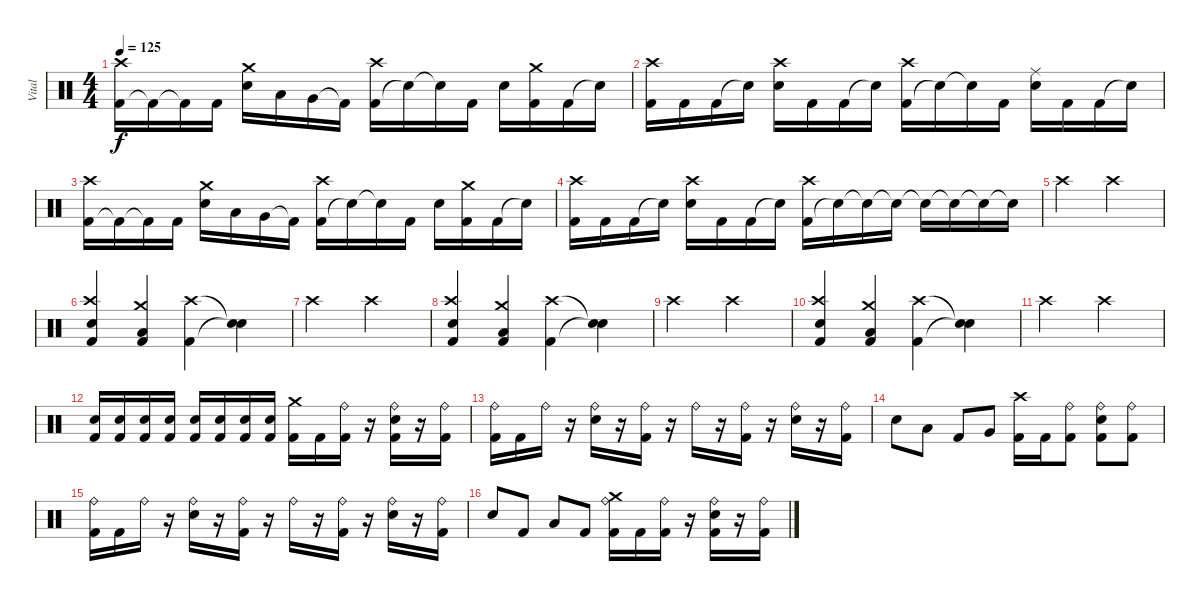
\track ("Vital" "Vital") {instrument percussion}
\staff {score}
\articulation defaults
\ts (4 4)
\tempo 125
\clef neutral
\ks c
("Kick (hit) 2" "Crash high (hit)").16{dy f} "Kick (hit) 2"{t}.16 "Kick (hit) 2"{t}.16 "Kick (hit) 2".16 ("Snare (hit) 2" "Crash medium (hit)").16 "Low Tom (hit)".16 "Very Low Tom (hit)".16 "Kick (hit) 2"{t}.16 ("Kick (hit) 2" "Crash high (hit)").16 "Snare (hit)"{t}.16 "Snare (hit)"{t}.16 "Kick (hit) 2".16 "Snare (hit) 2".16 ("Kick (hit) 2" "Crash medium (hit)").16 "Kick (hit) 2".16 "Snare (hit)"{t}.16 |
("Kick (hit) 2" "Crash high (hit)").16 "Kick (hit) 2".16 "Kick (hit) 2".16 "Snare (hit)"{t}.16 ("Snare (hit) 2" "Crash high (hit)").16 "Kick (hit) 2".16 "Kick (hit) 2".16 "Snare (hit)"{t}.16 ("Kick (hit) 2" "Crash high (hit)").16 "Snare (hit)"{t}.16 "Snare (hit)"{t}.16 "Kick (hit) 2".16 ("Snare (hit) 2" "Ride (middle)").16 "Kick (hit) 2".16 "Kick (hit) 2".16 "Snare (hit)"{t}.16 |
("Kick (hit) 2" "Crash high (hit)").16 "Kick (hit) 2"{t}.16 "Kick (hit) 2"{t}.16 "Kick (hit) 2".16 ("Snare (hit) 2" "Crash medium (hit)").16 "Low Tom (hit)".16 "Very Low Tom (hit)".16 "Kick (hit) 2"{t}.16 ("Kick (hit) 2" "Crash high (hit)").16 "Snare (hit)"{t}.16 "Snare (hit)"{t}.16 "Kick (hit) 2".16 "Snare (hit) 2".16 ("Kick (hit) 2" "Crash medium (hit)").16 "Kick (hit) 2".16 "Snare (hit)"{t}.16 |
("Kick (hit) 2" "Crash high (hit)").16 "Kick (hit) 2".16 "Kick (hit) 2".16 "Snare (hit)"{t}.16 ("Snare (hit) 2" "Crash high (hit)").16 "Kick (hit) 2".16 "Kick (hit) 2".16 "Snare (hit)"{t}.16 ("Kick (hit) 2" "Crash high (hit)").16 "Snare (hit)"{t}.16 "Snare (hit) 2"{t}.16 "Snare (hit) 2"{t}.16 "Snare (hit) 2"{t}.16 "Snare (hit) 2"{t}.16 "Snare (hit) 2"{t}.16 "Snare (hit) 2"{t}.16 |
"Crash high (hit)".2 "Crash high (hit)".2 |
("Snare (hit) 2" "Kick (hit) 2" "Crash high (hit)").4 ("Kick (hit) 2" "Low Floor Tom (hit)" "Crash medium (hit)").4 ("Kick (hit) 2" "Crash high (hit)").4 ("Snare (hit)"{t} "Snare (hit)"{t}).4 |
"Crash high (hit)".2 "Crash high (hit)".2 |
("Snare (hit) 2" "Kick (hit) 2" "Crash high (hit)").4 ("Kick (hit) 2" "Low Floor Tom (hit)" "Crash medium (hit)").4 ("Kick (hit) 2" "Crash high (hit)").4 ("Snare (hit)"{t} "Snare (hit)"{t}).4 |
"Crash high (hit)".2 "Crash high (hit)".2 |
("Snare (hit) 2" "Kick (hit) 2" "Crash high (hit)").4 ("Kick (hit) 2" "Low Floor Tom (hit)" "Crash medium (hit)").4 ("Kick (hit) 2" "Crash high (hit)").4 ("Snare (hit)"{t} "Snare (hit)"{t}).4 |
"Crash high (hit)".2 "Crash high (hit)".2 |
("Kick (hit) 2" "Snare (hit) 2").16 ("Kick (hit) 2" "Snare (hit) 2").16 ("Kick (hit) 2" "Snare (hit) 2").16 ("Kick (hit) 2" "Snare (hit) 2").16 ("Kick (hit) 2" "Snare (hit) 2").16 ("Kick (hit) 2" "Snare (hit) 2").16 ("Kick (hit) 2" "Snare (hit) 2").16 ("Kick (hit) 2" "Snare (hit) 2").16 ("Kick (hit) 2" "Crash medium (hit)").16 "Kick (hit) 2".16 ("Kick (hit) 2" "Ride (bell)").16 r.16 ("Kick (hit) 2" "Snare (hit) 2" "Ride (bell)").16 r.16 ("Kick (hit) 2" "Ride (bell)").16 |
("Kick (hit) 2" "Ride (bell)").16 "Kick (hit) 2".16 "Ride (bell)".16 r.16 ("Snare (hit) 2" "Ride (bell)").16 r.16 ("Kick (hit) 2" "Ride (bell)").16 r.16 "Ride (bell)".16 r.16 ("Kick (hit) 2" "Ride (bell)").16 r.16 ("Snare (hit) 2" "Ride (bell)").16 r.16 ("Kick (hit) 2" "Ride (bell)").16 |
"Snare (hit) 2".8 "Low Floor Tom (hit)".8 "Kick (hit) 2".8 "Very Low Tom (hit)".8 ("Kick (hit) 2" "Crash high (hit)").16 "Kick (hit) 2".16 ("Kick (hit) 2" "Ride (bell)").8 ("Kick (hit) 2" "Snare (hit) 2" "Ride (bell)").8 ("Kick (hit) 2" "Ride (bell)").8 |
("Kick (hit) 2" "Ride (bell)").16 "Kick (hit) 2".16 "Ride (bell)".16 r.16 ("Snare (hit) 2" "Ride (bell)").16 r.16 ("Kick (hit) 2" "Ride (bell)").16 r.16 "Ride (bell)".16 r.16 ("Kick (hit) 2" "Ride (bell)").16 r.16 ("Snare (hit) 2" "Ride (bell)").16 r.16 ("Kick (hit) 2" "Ride (bell)").16 |
"Snare (hit) 2".8 "Kick (hit) 2".8 "Low Floor Tom (hit)".8 "Kick (hit) 2".8 ("Kick (hit) 2" "Crash medium (hit)" "Ride (bell)").16 "Kick (hit) 2".16 ("Kick (hit) 2" "Ride (bell)").16 r.16 ("Kick (hit) 2" "Snare (hit) 2" "Ride (bell)").16 r.16 ("Kick (hit) 2" "Ride (bell)").16
